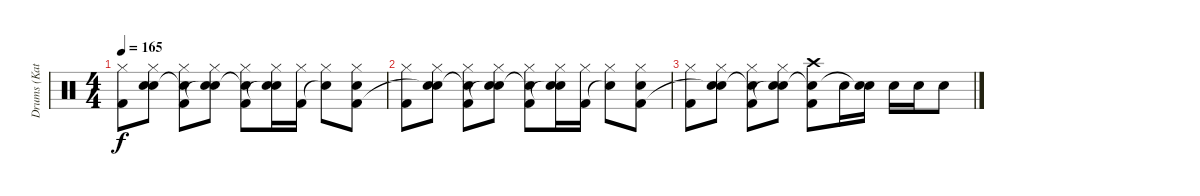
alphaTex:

\track ("Drums (Katsuji)" "Drums (Kat") {instrument percussion}
\staff {score}
\articulation defaults
\ts (4 4)
\tempo 165
\clef neutral
\ks c
("Hi-Hat (closed)" "Kick (hit) 2").8{dy f} ("Hi-Hat (closed)" "Snare (hit) 2" "Snare (hit)"{t}).8 ("Hi-Hat (closed)" "Snare (hit)"{t} "Kick (hit) 2").8 ("Hi-Hat (closed)" "Snare (hit) 2" "Snare (hit)"{t}).8 ("Hi-Hat (closed)" "Snare (hit)"{t} "Kick (hit) 2").8 ("Hi-Hat (closed)" "Snare (hit) 2" "Snare (hit)"{t}).16 ("Hi-Hat (closed)" "Kick (hit) 2").16 ("Hi-Hat (closed)" "Snare (hit)"{t}).8 ("Hi-Hat (closed)" "Snare (hit) 2" "Kick (hit) 2").8 |
("Hi-Hat (closed)" "Kick (hit) 2").8 ("Hi-Hat (closed)" "Snare (hit) 2" "Snare (hit)"{t}).8 ("Hi-Hat (closed)" "Snare (hit)"{t} "Kick (hit) 2").8 ("Hi-Hat (closed)" "Snare (hit) 2" "Snare (hit)"{t}).8 ("Hi-Hat (closed)" "Snare (hit)"{t} "Kick (hit) 2").8 ("Hi-Hat (closed)" "Snare (hit) 2" "Snare (hit)"{t}).16 ("Hi-Hat (closed)" "Kick (hit) 2").16 ("Hi-Hat (closed)" "Snare (hit)"{t}).8 ("Hi-Hat (closed)" "Snare (hit) 2" "Kick (hit) 2").8 |
("Hi-Hat (closed)" "Kick (hit) 2").8 ("Hi-Hat (closed)" "Snare (hit) 2" "Snare (hit)"{t}).8 ("Hi-Hat (closed)" "Snare (hit)"{t} "Kick (hit) 2").8 ("Hi-Hat (closed)" "Snare (hit) 2" "Snare (hit)"{t}).8 ("Crash high (hit)" "Snare (hit)"{t} "Kick (hit) 2").8 "Snare (hit) 2".16 ("Snare (hit) 2" "Snare (hit)"{t}).16 "Snare (hit) 2".16 "Snare (hit) 2".16 "Snare (hit) 2".8
